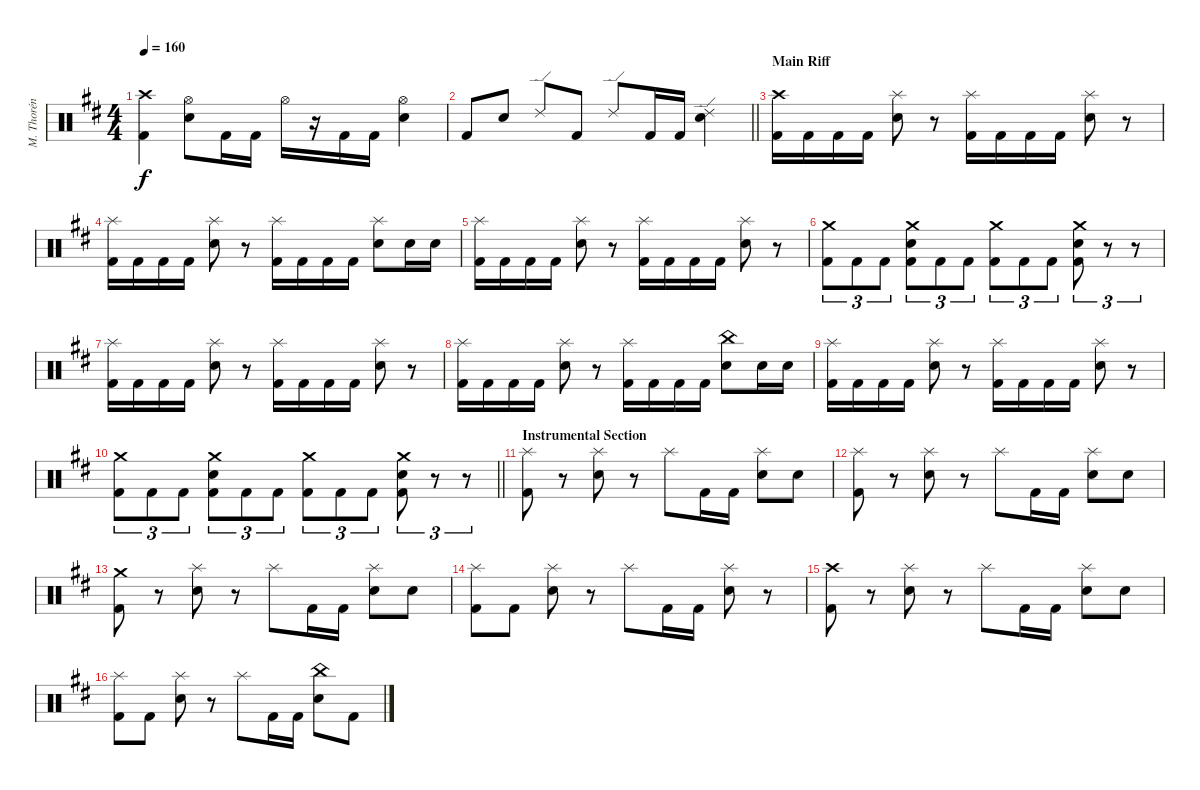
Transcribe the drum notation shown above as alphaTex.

\track ("M. Thorén (Drums)" "M. Thorén ") {instrument percussion}
\staff {score}
\articulation defaults
\ts (4 4)
\tempo 160
\clef neutral
\ks bminor
("Crash high (hit)" "Kick (hit) 2").4{dy f} ("Hi-Hat (open)" "Electric Snare (hit)").8 "Kick (hit) 2".16 "Kick (hit) 2".16 "Hi-Hat (open)".16 r.16 "Kick (hit) 2".16 "Kick (hit) 2".16 ("Hi-Hat (open)" "Electric Snare (hit)").4 |
\barLineRight lightlight "Kick (hit) 2".8 "Electric Snare (hit)".8 "Ride (edge) 2".8 "Kick (hit) 2".8 "Ride (edge) 2".8 "Kick (hit) 2".16 "Kick (hit) 2".16
("Ride (edge) 2" "Electric Snare (hit)").4 |
\section ("" "Main Riff")
("Crash high (hit)" "Kick (hit) 2").16 "Kick (hit) 2".16 "Kick (hit) 2".16 "Kick (hit) 2".16 ("Splash (hit)" "Electric Snare (hit)").8 r.8 ("Splash (hit)" "Kick (hit) 2").16 "Kick (hit) 2".16 "Kick (hit) 2".16 "Kick (hit) 2".16 ("Splash (hit)" "Electric Snare (hit)").8 r.8 |
("Splash (hit)" "Kick (hit) 2").16 "Kick (hit) 2".16 "Kick (hit) 2".16 "Kick (hit) 2".16 ("Splash (hit)" "Electric Snare (hit)").8 r.8 ("Splash (hit)" "Kick (hit) 2").16 "Kick (hit) 2".16 "Kick (hit) 2".16 "Kick (hit) 2".16 ("Splash (hit)" "Electric Snare (hit)").8 "Electric Snare (hit)".16 "Electric Snare (hit)".16 |
("Splash (hit)" "Kick (hit) 2").16 "Kick (hit) 2".16 "Kick (hit) 2".16 "Kick (hit) 2".16 ("Splash (hit)" "Electric Snare (hit)").8 r.8 ("Splash (hit)" "Kick (hit) 2").16 "Kick (hit) 2".16 "Kick (hit) 2".16 "Kick (hit) 2".16 ("Splash (hit)" "Electric Snare (hit)").8 r.8 |
("Crash medium (hit)" "Kick (hit) 2").8{tu (3 2)} "Kick (hit) 2".8{tu (3 2)} "Kick (hit) 2".8{tu (3 2)} ("Crash medium (hit)" "Electric Snare (hit)" "Kick (hit) 2").8{tu (3 2)} "Kick (hit) 2".8{tu (3 2)} "Kick (hit) 2".8{tu (3 2)} ("Crash medium (hit)" "Kick (hit) 2").8{tu (3 2)} "Kick (hit) 2".8{tu (3 2)} "Kick (hit) 2".8{tu (3 2)} ("Crash medium (hit)" "Electric Snare (hit)" "Kick (hit) 2").8{tu (3 2)} r.8{tu (3 2)} r.8{tu (3 2)} |
("Splash (hit)" "Kick (hit) 2").16 "Kick (hit) 2".16 "Kick (hit) 2".16 "Kick (hit) 2".16 ("Splash (hit)" "Electric Snare (hit)").8 r.8 ("Splash (hit)" "Kick (hit) 2").16 "Kick (hit) 2".16 "Kick (hit) 2".16 "Kick (hit) 2".16 ("Splash (hit)" "Electric Snare (hit)").8 r.8 |
("Splash (hit)" "Kick (hit) 2").16 "Kick (hit) 2".16 "Kick (hit) 2".16 "Kick (hit) 2".16 ("Splash (hit)" "Electric Snare (hit)").8 r.8 ("Splash (hit)" "Kick (hit) 2").16 "Kick (hit) 2".16 "Kick (hit) 2".16 "Kick (hit) 2".16 ("China (hit)" "Electric Snare (hit)").8 "Electric Snare (hit)".16 "Electric Snare (hit)".16 |
("Splash (hit)" "Kick (hit) 2").16 "Kick (hit) 2".16 "Kick (hit) 2".16 "Kick (hit) 2".16 ("Splash (hit)" "Electric Snare (hit)").8 r.8 ("Splash (hit)" "Kick (hit) 2").16 "Kick (hit) 2".16 "Kick (hit) 2".16 "Kick (hit) 2".16 ("Splash (hit)" "Electric Snare (hit)").8 r.8 |
\barLineRight lightlight
("Crash medium (hit)" "Kick (hit) 2").8{tu (3 2)} "Kick (hit) 2".8{tu (3 2)} "Kick (hit) 2".8{tu (3 2)} ("Crash medium (hit)" "Electric Snare (hit)" "Kick (hit) 2").8{tu (3 2)} "Kick (hit) 2".8{tu (3 2)} "Kick (hit) 2".8{tu (3 2)} ("Crash medium (hit)" "Kick (hit) 2").8{tu (3 2)} "Kick (hit) 2".8{tu (3 2)} "Kick (hit) 2".8{tu (3 2)} ("Crash medium (hit)" "Electric Snare (hit)" "Kick (hit) 2").8{tu (3 2)} r.8{tu (3 2)} r.8{tu (3 2)} |
\section ("" "Instrumental Section")
("Splash (hit)" "Kick (hit) 2").8 r.8 ("Splash (hit)" "Electric Snare (hit)").8 r.8 "Splash (hit)".8 "Kick (hit) 2".16 "Kick (hit) 2".16 ("Splash (hit)" "Electric Snare (hit)").8 "Electric Snare (hit)".8 |
("Splash (hit)" "Kick (hit) 2").8 r.8 ("Splash (hit)" "Electric Snare (hit)").8 r.8 "Splash (hit)".8 "Kick (hit) 2".16 "Kick (hit) 2".16 ("Splash (hit)" "Electric Snare (hit)").8 "Electric Snare (hit)".8 |
("Crash medium (hit)" "Kick (hit) 2").8 r.8 ("Splash (hit)" "Electric Snare (hit)").8 r.8 "Splash (hit)".8 "Kick (hit) 2".16 "Kick (hit) 2".16 ("Splash (hit)" "Electric Snare (hit)").8 "Electric Snare (hit)".8 |
("Splash (hit)" "Kick (hit) 2").8 "Kick (hit) 2".8 ("Splash (hit)" "Electric Snare (hit)").8 r.8 "Splash (hit)".8 "Kick (hit) 2".16 "Kick (hit) 2".16 ("Splash (hit)" "Electric Snare (hit)").8 r.8 |
("Crash high (hit)" "Kick (hit) 2").8 r.8 ("Splash (hit)" "Electric Snare (hit)").8 r.8 "Splash (hit)".8 "Kick (hit) 2".16 "Kick (hit) 2".16 ("Splash (hit)" "Electric Snare (hit)").8 "Electric Snare (hit)".8 |
("Splash (hit)" "Kick (hit) 2").8 "Kick (hit) 2".8 ("Splash (hit)" "Electric Snare (hit)").8 r.8 "Splash (hit)".8 "Kick (hit) 2".16 "Kick (hit) 2".16 ("China (hit)" "Electric Snare (hit)").8 "Kick (hit) 2".8
